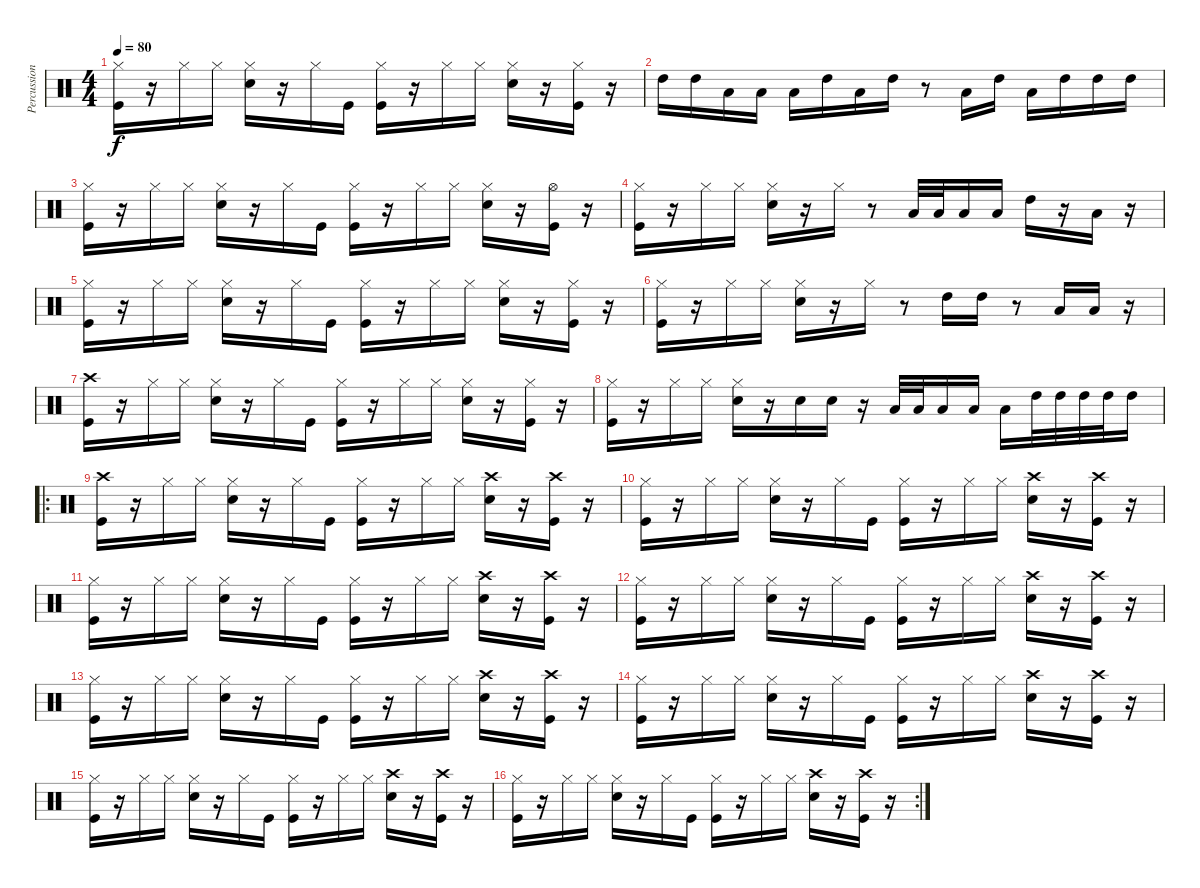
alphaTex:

\track ("Percussions" "Percussion") {instrument percussion}
\staff {score}
\articulation defaults
\ts (4 4)
\tempo 80
\clef neutral
\ks c
("Kick (hit)" "Hi-Hat (closed)").16{dy f} r.16 "Hi-Hat (closed)".16 "Hi-Hat (closed)".16 ("Snare (hit) 2" "Hi-Hat (closed)").16 r.16 "Hi-Hat (closed)".16 "Kick (hit)".16 ("Kick (hit)" "Hi-Hat (closed)").16 r.16 "Hi-Hat (closed)".16 "Hi-Hat (closed)".16 ("Snare (hit) 2" "Hi-Hat (closed)").16 r.16 ("Kick (hit)" "Hi-Hat (closed)").16 r.16 |
"High Tom (hit)".16 "High Tom (hit)".16 "Low Tom (hit)".16 "Low Floor Tom (hit)".16 "Low Floor Tom (hit)".16 "High Tom (hit)".16 "Low Floor Tom (hit)".16 "High Tom (hit)".16 r.8 "Low Floor Tom (hit)".16 "High Tom (hit)".16 "Low Floor Tom (hit)".16 "High Tom (hit)".16 "High Tom (hit)".16 "High Tom (hit)".16 |
("Kick (hit)" "Hi-Hat (closed)").16 r.16 "Hi-Hat (closed)".16 "Hi-Hat (closed)".16 ("Snare (hit) 2" "Hi-Hat (closed)").16 r.16 "Hi-Hat (closed)".16 "Kick (hit)".16 ("Kick (hit)" "Hi-Hat (closed)").16 r.16 "Hi-Hat (closed)".16 "Hi-Hat (closed)".16 ("Snare (hit) 2" "Hi-Hat (closed)").16 r.16 ("Kick (hit)" "Hi-Hat (open)").16 r.16 |
("Kick (hit)" "Hi-Hat (closed)").16 r.16 "Hi-Hat (closed)".16 "Hi-Hat (closed)".16 ("Snare (hit) 2" "Hi-Hat (closed)").16 r.16 "Hi-Hat (closed)".16 r.8 "Low Floor Tom (hit)".32 "Low Floor Tom (hit)".32 "Low Floor Tom (hit)".16 "Low Floor Tom (hit)".16 "High Tom (hit)".16 r.16 "Low Floor Tom (hit)".16 r.16 |
("Kick (hit)" "Hi-Hat (closed)").16 r.16 "Hi-Hat (closed)".16 "Hi-Hat (closed)".16 ("Snare (hit) 2" "Hi-Hat (closed)").16 r.16 "Hi-Hat (closed)".16 "Kick (hit)".16 ("Kick (hit)" "Hi-Hat (closed)").16 r.16 "Hi-Hat (closed)".16 "Hi-Hat (closed)".16 ("Snare (hit) 2" "Hi-Hat (closed)").16 r.16 ("Kick (hit)" "Hi-Hat (closed)").16 r.16 |
("Kick (hit)" "Hi-Hat (closed)").16 r.16 "Hi-Hat (closed)".16 "Hi-Hat (closed)".16 ("Snare (hit) 2" "Hi-Hat (closed)").16 r.16 "Hi-Hat (closed)".16 r.8 "High Tom (hit)".16 "High Tom (hit)".16 r.8 "Low Floor Tom (hit)".16 "Low Floor Tom (hit)".16 r.16 |
("Kick (hit)" "Crash high (hit)").16 r.16 "Hi-Hat (closed)".16 "Hi-Hat (closed)".16 ("Snare (hit) 2" "Hi-Hat (closed)").16 r.16 "Hi-Hat (closed)".16 "Kick (hit)".16 ("Kick (hit)" "Hi-Hat (closed)").16 r.16 "Hi-Hat (closed)".16 "Hi-Hat (closed)".16 ("Snare (hit) 2" "Hi-Hat (closed)").16 r.16 ("Kick (hit)" "Hi-Hat (closed)").16 r.16 |
("Kick (hit)" "Hi-Hat (closed)").16 r.16 "Hi-Hat (closed)".16 "Hi-Hat (closed)".16 ("Snare (hit) 2" "Hi-Hat (closed)").16 r.16 "Snare (hit) 2".16 "Snare (hit) 2".16 r.16 "Low Floor Tom (hit)".32 "Low Floor Tom (hit)".32 "Low Floor Tom (hit)".16 "Low Floor Tom (hit)".16 "Low Floor Tom (hit)".16 "High Tom (hit)".32 "High Tom (hit)".32 "High Tom (hit)".32 "High Tom (hit)".32 "High Tom (hit)".16 |
\ro
("Kick (hit)" "Crash high (hit)").16 r.16 "Hi-Hat (closed)".16 "Hi-Hat (closed)".16 ("Snare (hit) 2" "Hi-Hat (closed)").16 r.16 "Hi-Hat (closed)".16 "Kick (hit)".16 ("Kick (hit)" "Hi-Hat (closed)").16 r.16 "Hi-Hat (closed)".16 "Hi-Hat (closed)".16 ("Crash high (hit)" "Snare (hit) 2").16 r.16 ("Kick (hit)" "Crash high (hit)").16 r.16 |
("Kick (hit)" "Hi-Hat (closed)").16 r.16 "Hi-Hat (closed)".16 "Hi-Hat (closed)".16 ("Snare (hit) 2" "Hi-Hat (closed)").16 r.16 "Hi-Hat (closed)".16 "Kick (hit)".16 ("Kick (hit)" "Hi-Hat (closed)").16 r.16 "Hi-Hat (closed)".16 "Hi-Hat (closed)".16 ("Crash high (hit)" "Snare (hit) 2").16 r.16 ("Kick (hit)" "Crash high (hit)").16 r.16 |
("Kick (hit)" "Hi-Hat (closed)").16 r.16 "Hi-Hat (closed)".16 "Hi-Hat (closed)".16 ("Snare (hit) 2" "Hi-Hat (closed)").16 r.16 "Hi-Hat (closed)".16 "Kick (hit)".16 ("Kick (hit)" "Hi-Hat (closed)").16 r.16 "Hi-Hat (closed)".16 "Hi-Hat (closed)".16 ("Crash high (hit)" "Snare (hit) 2").16 r.16 ("Kick (hit)" "Crash high (hit)").16 r.16 |
("Kick (hit)" "Hi-Hat (closed)").16 r.16 "Hi-Hat (closed)".16 "Hi-Hat (closed)".16 ("Snare (hit) 2" "Hi-Hat (closed)").16 r.16 "Hi-Hat (closed)".16 "Kick (hit)".16 ("Kick (hit)" "Hi-Hat (closed)").16 r.16 "Hi-Hat (closed)".16 "Hi-Hat (closed)".16 ("Crash high (hit)" "Snare (hit) 2").16 r.16 ("Kick (hit)" "Crash high (hit)").16 r.16 |
("Kick (hit)" "Hi-Hat (closed)").16 r.16 "Hi-Hat (closed)".16 "Hi-Hat (closed)".16 ("Snare (hit) 2" "Hi-Hat (closed)").16 r.16 "Hi-Hat (closed)".16 "Kick (hit)".16 ("Kick (hit)" "Hi-Hat (closed)").16 r.16 "Hi-Hat (closed)".16 "Hi-Hat (closed)".16 ("Crash high (hit)" "Snare (hit) 2").16 r.16 ("Kick (hit)" "Crash high (hit)").16 r.16 |
("Kick (hit)" "Hi-Hat (closed)").16 r.16 "Hi-Hat (closed)".16 "Hi-Hat (closed)".16 ("Snare (hit) 2" "Hi-Hat (closed)").16 r.16 "Hi-Hat (closed)".16 "Kick (hit)".16 ("Kick (hit)" "Hi-Hat (closed)").16 r.16 "Hi-Hat (closed)".16 "Hi-Hat (closed)".16 ("Crash high (hit)" "Snare (hit) 2").16 r.16 ("Kick (hit)" "Crash high (hit)").16 r.16 |
("Kick (hit)" "Hi-Hat (closed)").16 r.16 "Hi-Hat (closed)".16 "Hi-Hat (closed)".16 ("Snare (hit) 2" "Hi-Hat (closed)").16 r.16 "Hi-Hat (closed)".16 "Kick (hit)".16 ("Kick (hit)" "Hi-Hat (closed)").16 r.16 "Hi-Hat (closed)".16 "Hi-Hat (closed)".16 ("Crash high (hit)" "Snare (hit) 2").16 r.16 ("Kick (hit)" "Crash high (hit)").16 r.16 |
\rc 2
("Kick (hit)" "Hi-Hat (closed)").16 r.16 "Hi-Hat (closed)".16 "Hi-Hat (closed)".16 ("Snare (hit) 2" "Hi-Hat (closed)").16 r.16 "Hi-Hat (closed)".16 "Kick (hit)".16 ("Kick (hit)" "Hi-Hat (closed)").16 r.16 "Hi-Hat (closed)".16 "Hi-Hat (closed)".16 ("Crash high (hit)" "Snare (hit) 2").16 r.16 ("Kick (hit)" "Crash high (hit)").16 r.16
